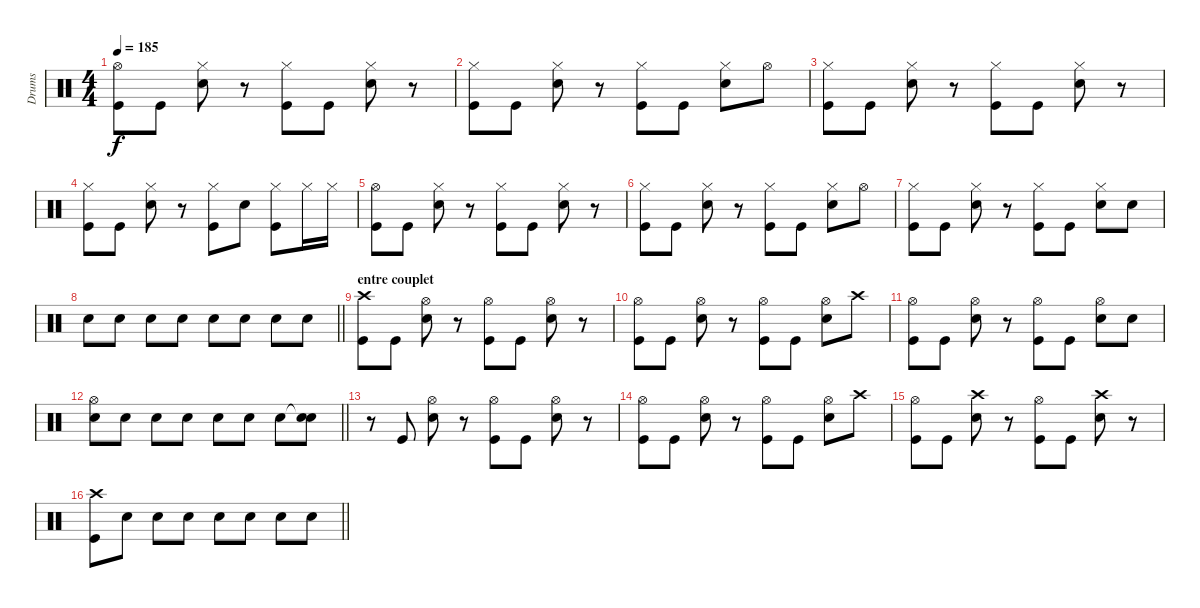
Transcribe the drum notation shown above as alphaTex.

\track ("Drums" "Drums") {instrument percussion}
\staff {score}
\articulation defaults
\ts (4 4)
\tempo 185
\clef neutral
\ks c
("Hi-Hat (open)" "Kick (hit)").8{dy f} "Kick (hit)".8 ("Hi-Hat (closed)" "Electric Snare (hit)").8 r.8 ("Hi-Hat (closed)" "Kick (hit)").8 "Kick (hit)".8 ("Hi-Hat (closed)" "Electric Snare (hit)").8 r.8 |
("Hi-Hat (closed)" "Kick (hit)").8 "Kick (hit)".8 ("Hi-Hat (closed)" "Electric Snare (hit)").8 r.8 ("Hi-Hat (closed)" "Kick (hit)").8 "Kick (hit)".8 ("Hi-Hat (closed)" "Electric Snare (hit)").8 "Hi-Hat (open)".8 |
("Hi-Hat (closed)" "Kick (hit)").8 "Kick (hit)".8 ("Hi-Hat (closed)" "Electric Snare (hit)").8 r.8 ("Hi-Hat (closed)" "Kick (hit)").8 "Kick (hit)".8 ("Hi-Hat (closed)" "Electric Snare (hit)").8 r.8 |
("Hi-Hat (closed)" "Kick (hit)").8 "Kick (hit)".8 ("Hi-Hat (closed)" "Electric Snare (hit)").8 r.8 ("Hi-Hat (closed)" "Kick (hit)").8 "Electric Snare (hit)".8 ("Hi-Hat (closed)" "Kick (hit)").8 "Hi-Hat (closed)".16 "Hi-Hat (closed)".16 |
("Hi-Hat (open)" "Kick (hit)").8 "Kick (hit)".8 ("Hi-Hat (closed)" "Electric Snare (hit)").8 r.8 ("Hi-Hat (closed)" "Kick (hit)").8 "Kick (hit)".8 ("Hi-Hat (closed)" "Electric Snare (hit)").8 r.8 |
("Hi-Hat (closed)" "Kick (hit)").8 "Kick (hit)".8 ("Hi-Hat (closed)" "Electric Snare (hit)").8 r.8 ("Hi-Hat (closed)" "Kick (hit)").8 "Kick (hit)".8 ("Hi-Hat (closed)" "Electric Snare (hit)").8 "Hi-Hat (open)".8 |
("Hi-Hat (closed)" "Kick (hit)").8 "Kick (hit)".8 ("Hi-Hat (closed)" "Electric Snare (hit)").8 r.8 ("Hi-Hat (closed)" "Kick (hit)").8 "Kick (hit)".8 ("Hi-Hat (closed)" "Electric Snare (hit)").8 "Electric Snare (hit)".8 |
\barLineRight lightlight "Electric Snare (hit)".8 "Electric Snare (hit)".8 "Electric Snare (hit)".8 "Electric Snare (hit)".8 "Electric Snare (hit)".8 "Electric Snare (hit)".8 "Electric Snare (hit)".8 "Electric Snare (hit)".8
|
\section ("" "entre couplet")
("Crash high (hit)" "Kick (hit)").8 "Kick (hit)".8 ("Hi-Hat (open)" "Electric Snare (hit)").8 r.8 ("Hi-Hat (open)" "Kick (hit)").8 "Kick (hit)".8 ("Hi-Hat (open)" "Electric Snare (hit)").8 r.8 |
("Hi-Hat (open)" "Kick (hit)").8 "Kick (hit)".8 ("Hi-Hat (open)" "Electric Snare (hit)").8 r.8 ("Hi-Hat (open)" "Kick (hit)").8 "Kick (hit)".8 ("Hi-Hat (open)" "Electric Snare (hit)").8 "Crash high (hit)".8 |
("Hi-Hat (open)" "Kick (hit)").8 "Kick (hit)".8 ("Hi-Hat (open)" "Electric Snare (hit)").8 r.8 ("Hi-Hat (open)" "Kick (hit)").8 "Kick (hit)".8 ("Hi-Hat (open)" "Electric Snare (hit)").8 "Electric Snare (hit)".8 |
\barLineRight lightlight
("Hi-Hat (open)" "Electric Snare (hit)").8 "Electric Snare (hit)".8 "Electric Snare (hit)".8 "Electric Snare (hit)".8 "Electric Snare (hit)".8 "Electric Snare (hit)".8 "Electric Snare (hit)".8 ("Snare (hit)"{t} "Electric Snare (hit)").8 |
r.8 "Kick (hit)".8 ("Hi-Hat (open)" "Electric Snare (hit)").8 r.8 ("Hi-Hat (open)" "Kick (hit)").8 "Kick (hit)".8 ("Hi-Hat (open)" "Electric Snare (hit)").8 r.8 |
("Hi-Hat (open)" "Kick (hit)").8 "Kick (hit)".8 ("Hi-Hat (open)" "Electric Snare (hit)").8 r.8 ("Hi-Hat (open)" "Kick (hit)").8 "Kick (hit)".8 ("Hi-Hat (open)" "Electric Snare (hit)").8 "Crash high (hit)".8 |
("Hi-Hat (open)" "Kick (hit)").8 "Kick (hit)".8 ("Crash high (hit)" "Electric Snare (hit)").8 r.8 ("Hi-Hat (open)" "Kick (hit)").8 "Kick (hit)".8 ("Crash high (hit)" "Electric Snare (hit)").8 r.8 |
\barLineRight lightlight
("Crash high (hit)" "Kick (hit)").8 "Electric Snare (hit)".8 "Electric Snare (hit)".8 "Electric Snare (hit)".8 "Electric Snare (hit)".8 "Electric Snare (hit)".8 "Electric Snare (hit)".8 "Electric Snare (hit)".8
